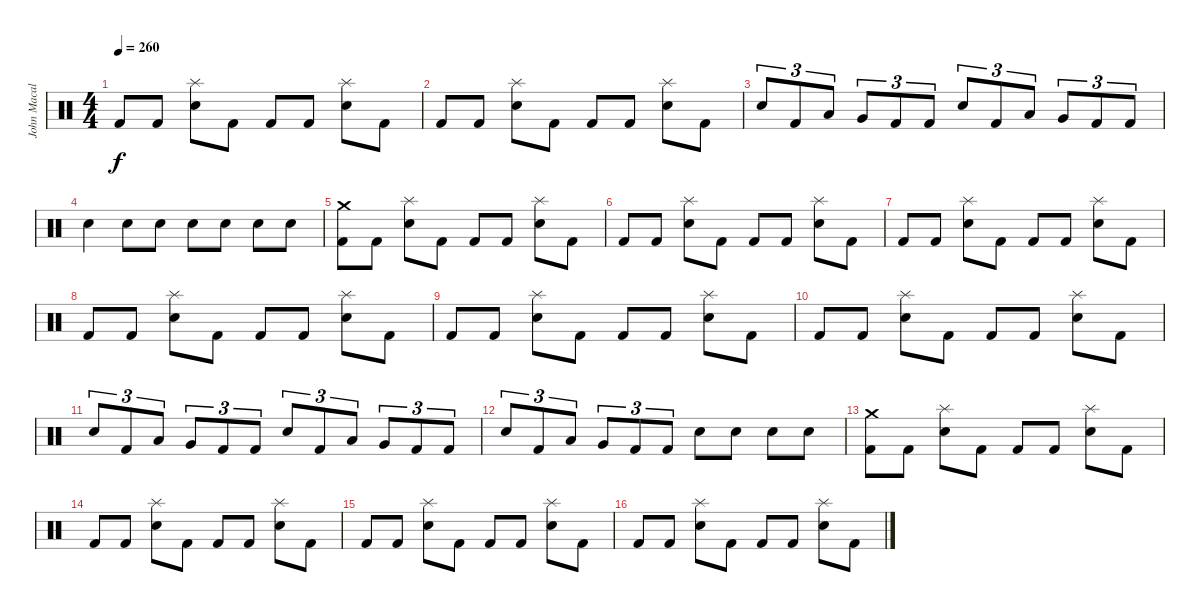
\track ("John Macaluso" "John Macal") {instrument percussion}
\staff {score}
\articulation defaults
\ts (4 4)
\tempo 260
\clef neutral
\ks c "Kick (hit) 2".8{dy f} "Kick (hit) 2".8
("Splash (hit)" "Snare (hit) 2").8 "Kick (hit) 2".8 "Kick (hit) 2".8 "Kick (hit) 2".8 ("Splash (hit)" "Snare (hit) 2").8 "Kick (hit) 2".8 |
"Kick (hit) 2".8 "Kick (hit) 2".8 ("Splash (hit)" "Snare (hit) 2").8 "Kick (hit) 2".8 "Kick (hit) 2".8 "Kick (hit) 2".8 ("Splash (hit)" "Snare (hit) 2").8 "Kick (hit) 2".8 |
"Snare (hit) 2".8{tu (3 2)} "Kick (hit) 2".8{tu (3 2)} "Low Tom (hit)".8{tu (3 2)} "Very Low Tom (hit)".8{tu (3 2)} "Kick (hit) 2".8{tu (3 2)} "Kick (hit) 2".8{tu (3 2)} "Snare (hit) 2".8{tu (3 2)} "Kick (hit) 2".8{tu (3 2)} "Low Tom (hit)".8{tu (3 2)} "Very Low Tom (hit)".8{tu (3 2)} "Kick (hit) 2".8{tu (3 2)} "Kick (hit) 2".8{tu (3 2)} |
"Snare (hit) 2".4 "Snare (hit) 2".8 "Snare (hit) 2".8 "Snare (hit) 2".8 "Snare (hit) 2".8 "Snare (hit) 2".8 "Snare (hit) 2".8 |
("Crash medium (hit)" "Kick (hit) 2").8 "Kick (hit) 2".8 ("Splash (hit)" "Snare (hit) 2").8 "Kick (hit) 2".8 "Kick (hit) 2".8 "Kick (hit) 2".8 ("Splash (hit)" "Snare (hit) 2").8 "Kick (hit) 2".8 |
"Kick (hit) 2".8 "Kick (hit) 2".8 ("Splash (hit)" "Snare (hit) 2").8 "Kick (hit) 2".8 "Kick (hit) 2".8 "Kick (hit) 2".8 ("Splash (hit)" "Snare (hit) 2").8 "Kick (hit) 2".8 |
"Kick (hit) 2".8 "Kick (hit) 2".8 ("Splash (hit)" "Snare (hit) 2").8 "Kick (hit) 2".8 "Kick (hit) 2".8 "Kick (hit) 2".8 ("Splash (hit)" "Snare (hit) 2").8 "Kick (hit) 2".8 |
"Kick (hit) 2".8 "Kick (hit) 2".8 ("Splash (hit)" "Snare (hit) 2").8 "Kick (hit) 2".8 "Kick (hit) 2".8 "Kick (hit) 2".8 ("Splash (hit)" "Snare (hit) 2").8 "Kick (hit) 2".8 |
"Kick (hit) 2".8 "Kick (hit) 2".8 ("Splash (hit)" "Snare (hit) 2").8 "Kick (hit) 2".8 "Kick (hit) 2".8 "Kick (hit) 2".8 ("Splash (hit)" "Snare (hit) 2").8 "Kick (hit) 2".8 |
"Kick (hit) 2".8 "Kick (hit) 2".8 ("Splash (hit)" "Snare (hit) 2").8 "Kick (hit) 2".8 "Kick (hit) 2".8 "Kick (hit) 2".8 ("Splash (hit)" "Snare (hit) 2").8 "Kick (hit) 2".8 |
"Snare (hit) 2".8{tu (3 2)} "Kick (hit) 2".8{tu (3 2)} "Low Tom (hit)".8{tu (3 2)} "Very Low Tom (hit)".8{tu (3 2)} "Kick (hit) 2".8{tu (3 2)} "Kick (hit) 2".8{tu (3 2)} "Snare (hit) 2".8{tu (3 2)} "Kick (hit) 2".8{tu (3 2)} "Low Tom (hit)".8{tu (3 2)} "Very Low Tom (hit)".8{tu (3 2)} "Kick (hit) 2".8{tu (3 2)} "Kick (hit) 2".8{tu (3 2)} |
"Snare (hit) 2".8{tu (3 2)} "Kick (hit) 2".8{tu (3 2)} "Low Tom (hit)".8{tu (3 2)} "Very Low Tom (hit)".8{tu (3 2)} "Kick (hit) 2".8{tu (3 2)} "Kick (hit) 2".8{tu (3 2)} "Snare (hit) 2".8 "Snare (hit) 2".8 "Snare (hit) 2".8 "Snare (hit) 2".8 |
("Crash medium (hit)" "Kick (hit) 2").8 "Kick (hit) 2".8 ("Splash (hit)" "Snare (hit) 2").8 "Kick (hit) 2".8 "Kick (hit) 2".8 "Kick (hit) 2".8 ("Splash (hit)" "Snare (hit) 2").8 "Kick (hit) 2".8 |
"Kick (hit) 2".8 "Kick (hit) 2".8 ("Splash (hit)" "Snare (hit) 2").8 "Kick (hit) 2".8 "Kick (hit) 2".8 "Kick (hit) 2".8 ("Splash (hit)" "Snare (hit) 2").8 "Kick (hit) 2".8 |
"Kick (hit) 2".8 "Kick (hit) 2".8 ("Splash (hit)" "Snare (hit) 2").8 "Kick (hit) 2".8 "Kick (hit) 2".8 "Kick (hit) 2".8 ("Splash (hit)" "Snare (hit) 2").8 "Kick (hit) 2".8 |
"Kick (hit) 2".8 "Kick (hit) 2".8 ("Splash (hit)" "Snare (hit) 2").8 "Kick (hit) 2".8 "Kick (hit) 2".8 "Kick (hit) 2".8 ("Splash (hit)" "Snare (hit) 2").8 "Kick (hit) 2".8
